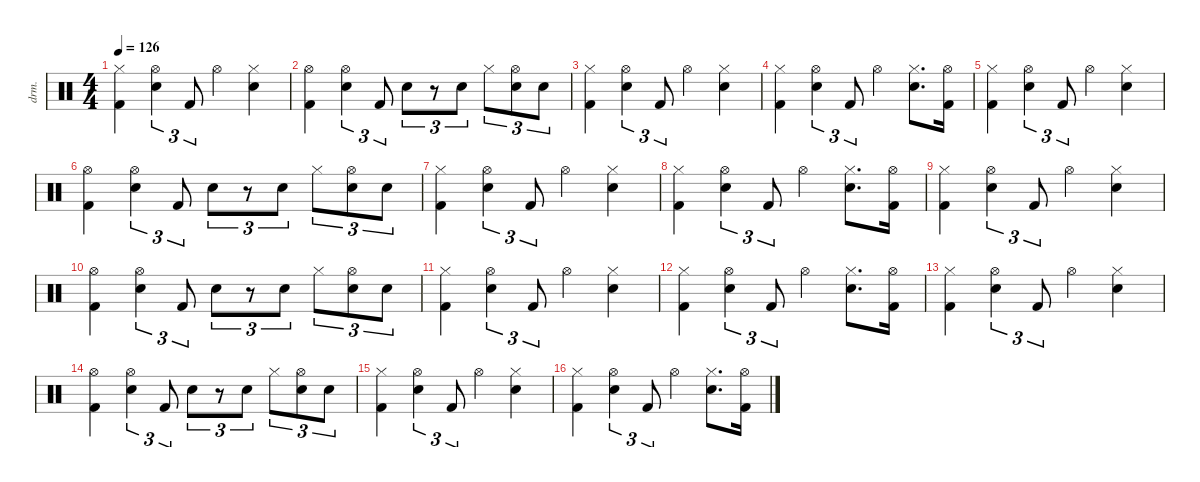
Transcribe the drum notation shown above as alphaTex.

\defaultSystemsLayout 4
\hideDynamics
\bracketExtendMode nobrackets
\otherSystemsTrackNameOrientation horizontal
\track ("Percussion" "drm.") {instrument percussion}
\staff {score}
\articulation defaults
\ts (4 4)
\tempo 126
\clef neutral
\ks c
("Hi-Hat (closed)" "Kick (hit) 2").4{dy f beam Down} ("Hi-Hat (open)" "Snare (hit) 2").4{tu (3 2) beam Down} "Kick (hit) 2".8{tu (3 2) beam Up} "Hi-Hat (open)".4{beam Down} ("Hi-Hat (closed)" "Snare (hit) 2").4{beam Down} |
("Hi-Hat (open)" "Kick (hit) 2").4{beam Down} ("Hi-Hat (open)" "Snare (hit) 2").4{tu (3 2) beam Down} "Kick (hit) 2".8{tu (3 2) beam Up} "Snare (hit) 2".8{tu (3 2) beam Down} r.8{tu (3 2) beam Down} "Snare (hit) 2".8{tu (3 2) beam Down} "Hi-Hat (closed)".8{tu (3 2) beam Down} ("Hi-Hat (open)" "Snare (hit) 2").8{tu (3 2) beam Down} "Snare (hit) 2".8{tu (3 2) beam Down} |
("Hi-Hat (closed)" "Kick (hit) 2").4{beam Down} ("Hi-Hat (open)" "Snare (hit) 2").4{tu (3 2) beam Down} "Kick (hit) 2".8{tu (3 2) beam Up} "Hi-Hat (open)".4{beam Down} ("Hi-Hat (closed)" "Snare (hit) 2").4{beam Down} |
("Hi-Hat (closed)" "Kick (hit) 2").4{beam Down} ("Hi-Hat (open)" "Snare (hit) 2").4{tu (3 2) beam Down} "Kick (hit) 2".8{tu (3 2) beam Up} "Hi-Hat (open)".4{beam Down} ("Hi-Hat (closed)" "Snare (hit) 2").8{d beam Down} ("Hi-Hat (open)" "Kick (hit) 2").16{beam Down} |
("Hi-Hat (closed)" "Kick (hit) 2").4{beam Down} ("Hi-Hat (open)" "Snare (hit) 2").4{tu (3 2) beam Down} "Kick (hit) 2".8{tu (3 2) beam Up} "Hi-Hat (open)".4{beam Down} ("Hi-Hat (closed)" "Snare (hit) 2").4{beam Down} |
("Hi-Hat (open)" "Kick (hit) 2").4{beam Down} ("Hi-Hat (open)" "Snare (hit) 2").4{tu (3 2) beam Down} "Kick (hit) 2".8{tu (3 2) beam Up} "Snare (hit) 2".8{tu (3 2) beam Down} r.8{tu (3 2) beam Down} "Snare (hit) 2".8{tu (3 2) beam Down} "Hi-Hat (closed)".8{tu (3 2) beam Down} ("Hi-Hat (open)" "Snare (hit) 2").8{tu (3 2) beam Down} "Snare (hit) 2".8{tu (3 2) beam Down} |
("Hi-Hat (closed)" "Kick (hit) 2").4{beam Down} ("Hi-Hat (open)" "Snare (hit) 2").4{tu (3 2) beam Down} "Kick (hit) 2".8{tu (3 2) beam Up} "Hi-Hat (open)".4{beam Down} ("Hi-Hat (closed)" "Snare (hit) 2").4{beam Down} |
("Hi-Hat (closed)" "Kick (hit) 2").4{beam Down} ("Hi-Hat (open)" "Snare (hit) 2").4{tu (3 2) beam Down} "Kick (hit) 2".8{tu (3 2) beam Up} "Hi-Hat (open)".4{beam Down} ("Hi-Hat (closed)" "Snare (hit) 2").8{d beam Down} ("Hi-Hat (open)" "Kick (hit) 2").16{beam Down} |
("Hi-Hat (closed)" "Kick (hit) 2").4{beam Down} ("Hi-Hat (open)" "Snare (hit) 2").4{tu (3 2) beam Down} "Kick (hit) 2".8{tu (3 2) beam Up} "Hi-Hat (open)".4{beam Down} ("Hi-Hat (closed)" "Snare (hit) 2").4{beam Down} |
("Hi-Hat (open)" "Kick (hit) 2").4{beam Down} ("Hi-Hat (open)" "Snare (hit) 2").4{tu (3 2) beam Down} "Kick (hit) 2".8{tu (3 2) beam Up} "Snare (hit) 2".8{tu (3 2) beam Down} r.8{tu (3 2) beam Down} "Snare (hit) 2".8{tu (3 2) beam Down} "Hi-Hat (closed)".8{tu (3 2) beam Down} ("Hi-Hat (open)" "Snare (hit) 2").8{tu (3 2) beam Down} "Snare (hit) 2".8{tu (3 2) beam Down} |
("Hi-Hat (closed)" "Kick (hit) 2").4{beam Down} ("Hi-Hat (open)" "Snare (hit) 2").4{tu (3 2) beam Down} "Kick (hit) 2".8{tu (3 2) beam Up} "Hi-Hat (open)".4{beam Down} ("Hi-Hat (closed)" "Snare (hit) 2").4{beam Down} |
("Hi-Hat (closed)" "Kick (hit) 2").4{beam Down} ("Hi-Hat (open)" "Snare (hit) 2").4{tu (3 2) beam Down} "Kick (hit) 2".8{tu (3 2) beam Up} "Hi-Hat (open)".4{beam Down} ("Hi-Hat (closed)" "Snare (hit) 2").8{d beam Down} ("Hi-Hat (open)" "Kick (hit) 2").16{beam Down} |
("Hi-Hat (closed)" "Kick (hit) 2").4{beam Down} ("Hi-Hat (open)" "Snare (hit) 2").4{tu (3 2) beam Down} "Kick (hit) 2".8{tu (3 2) beam Up} "Hi-Hat (open)".4{beam Down} ("Hi-Hat (closed)" "Snare (hit) 2").4{beam Down} |
("Hi-Hat (open)" "Kick (hit) 2").4{beam Down} ("Hi-Hat (open)" "Snare (hit) 2").4{tu (3 2) beam Down} "Kick (hit) 2".8{tu (3 2) beam Up} "Snare (hit) 2".8{tu (3 2) beam Down} r.8{tu (3 2) beam Down} "Snare (hit) 2".8{tu (3 2) beam Down} "Hi-Hat (closed)".8{tu (3 2) beam Down} ("Hi-Hat (open)" "Snare (hit) 2").8{tu (3 2) beam Down} "Snare (hit) 2".8{tu (3 2) beam Down} |
("Hi-Hat (closed)" "Kick (hit) 2").4{beam Down} ("Hi-Hat (open)" "Snare (hit) 2").4{tu (3 2) beam Down} "Kick (hit) 2".8{tu (3 2) beam Up} "Hi-Hat (open)".4{beam Down} ("Hi-Hat (closed)" "Snare (hit) 2").4{beam Down} |
("Hi-Hat (closed)" "Kick (hit) 2").4{beam Down} ("Hi-Hat (open)" "Snare (hit) 2").4{tu (3 2) beam Down} "Kick (hit) 2".8{tu (3 2) beam Up} "Hi-Hat (open)".4{beam Down} ("Hi-Hat (closed)" "Snare (hit) 2").8{d beam Down} ("Hi-Hat (open)" "Kick (hit) 2").16{beam Down}
